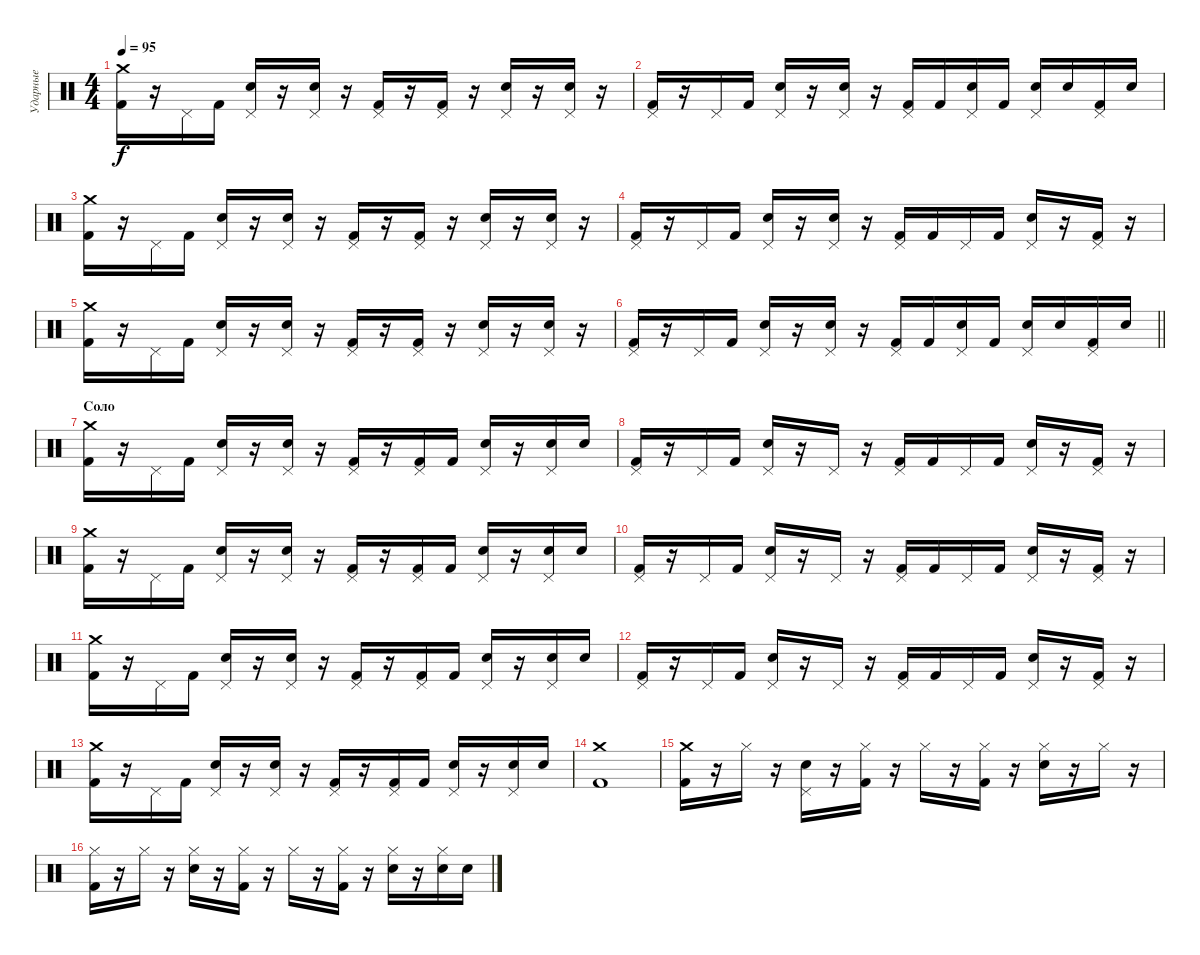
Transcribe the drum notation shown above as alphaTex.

\track ("Ударные" "Ударные") {instrument percussion}
\staff {score}
\articulation defaults
\ts (4 4)
\tempo 95
\clef neutral
\ks c
("Crash medium (hit)" "Kick (hit) 2").16{dy f} r.16 "Pedal Hi-Hat (hit)".16 "Kick (hit) 2".16 ("Pedal Hi-Hat (hit)" "Snare (hit) 2").16 r.16 ("Pedal Hi-Hat (hit)" "Snare (hit) 2").16 r.16 ("Pedal Hi-Hat (hit)" "Kick (hit) 2").16 r.16 ("Pedal Hi-Hat (hit)" "Kick (hit) 2").16 r.16 ("Pedal Hi-Hat (hit)" "Snare (hit) 2").16 r.16 ("Pedal Hi-Hat (hit)" "Snare (hit) 2").16 r.16 |
("Pedal Hi-Hat (hit)" "Kick (hit) 2").16 r.16 "Pedal Hi-Hat (hit)".16 "Kick (hit) 2".16 ("Pedal Hi-Hat (hit)" "Snare (hit) 2").16 r.16 ("Pedal Hi-Hat (hit)" "Snare (hit) 2").16 r.16 ("Pedal Hi-Hat (hit)" "Kick (hit) 2").16 "Kick (hit) 2".16 ("Pedal Hi-Hat (hit)" "Electric Snare (hit)").16 "Kick (hit) 2".16 ("Pedal Hi-Hat (hit)" "Snare (hit) 2").16 "Snare (hit) 2".16 ("Pedal Hi-Hat (hit)" "Kick (hit) 2").16 "Snare (hit) 2".16 |
("Crash medium (hit)" "Kick (hit) 2").16 r.16 "Pedal Hi-Hat (hit)".16 "Kick (hit) 2".16 ("Pedal Hi-Hat (hit)" "Snare (hit) 2").16 r.16 ("Pedal Hi-Hat (hit)" "Snare (hit) 2").16 r.16 ("Pedal Hi-Hat (hit)" "Kick (hit) 2").16 r.16 ("Pedal Hi-Hat (hit)" "Kick (hit) 2").16 r.16 ("Pedal Hi-Hat (hit)" "Snare (hit) 2").16 r.16 ("Pedal Hi-Hat (hit)" "Snare (hit) 2").16 r.16 |
("Pedal Hi-Hat (hit)" "Kick (hit) 2").16 r.16 "Pedal Hi-Hat (hit)".16 "Kick (hit) 2".16 ("Pedal Hi-Hat (hit)" "Snare (hit) 2").16 r.16 ("Pedal Hi-Hat (hit)" "Snare (hit) 2").16 r.16 ("Pedal Hi-Hat (hit)" "Kick (hit) 2").16 "Kick (hit) 2".16 "Pedal Hi-Hat (hit)".16 "Kick (hit) 2".16 ("Pedal Hi-Hat (hit)" "Snare (hit) 2").16 r.16 ("Pedal Hi-Hat (hit)" "Kick (hit) 2").16 r.16 |
("Crash medium (hit)" "Kick (hit) 2").16 r.16 "Pedal Hi-Hat (hit)".16 "Kick (hit) 2".16 ("Pedal Hi-Hat (hit)" "Snare (hit) 2").16 r.16 ("Pedal Hi-Hat (hit)" "Snare (hit) 2").16 r.16 ("Pedal Hi-Hat (hit)" "Kick (hit) 2").16 r.16 ("Pedal Hi-Hat (hit)" "Kick (hit) 2").16 r.16 ("Pedal Hi-Hat (hit)" "Snare (hit) 2").16 r.16 ("Pedal Hi-Hat (hit)" "Snare (hit) 2").16 r.16 |
\barLineRight lightlight
("Pedal Hi-Hat (hit)" "Kick (hit) 2").16 r.16 "Pedal Hi-Hat (hit)".16 "Kick (hit) 2".16 ("Pedal Hi-Hat (hit)" "Snare (hit) 2").16 r.16 ("Pedal Hi-Hat (hit)" "Snare (hit) 2").16 r.16 ("Pedal Hi-Hat (hit)" "Kick (hit) 2").16 "Kick (hit) 2".16 ("Pedal Hi-Hat (hit)" "Snare (hit) 2").16 "Kick (hit) 2".16 ("Pedal Hi-Hat (hit)" "Snare (hit) 2").16 "Snare (hit) 2".16 ("Pedal Hi-Hat (hit)" "Kick (hit) 2").16 "Snare (hit) 2".16 |
\section ("" "Соло")
("Crash medium (hit)" "Kick (hit) 2").16 r.16 "Pedal Hi-Hat (hit)".16 "Kick (hit) 2".16 ("Pedal Hi-Hat (hit)" "Electric Snare (hit)").16 r.16 ("Pedal Hi-Hat (hit)" "Electric Snare (hit)").16 r.16 ("Pedal Hi-Hat (hit)" "Kick (hit) 2").16 r.16 ("Pedal Hi-Hat (hit)" "Kick (hit) 2").16 "Kick (hit) 2".16 ("Pedal Hi-Hat (hit)" "Electric Snare (hit)").16 r.16 ("Pedal Hi-Hat (hit)" "Electric Snare (hit)").16 "Electric Snare (hit)".16 |
("Pedal Hi-Hat (hit)" "Kick (hit) 2").16 r.16 "Pedal Hi-Hat (hit)".16 "Kick (hit) 2".16 ("Pedal Hi-Hat (hit)" "Electric Snare (hit)").16 r.16 "Pedal Hi-Hat (hit)".16 r.16 ("Pedal Hi-Hat (hit)" "Kick (hit) 2").16 "Kick (hit) 2".16 "Pedal Hi-Hat (hit)".16 "Kick (hit) 2".16 ("Pedal Hi-Hat (hit)" "Electric Snare (hit)").16 r.16 ("Pedal Hi-Hat (hit)" "Kick (hit) 2").16 r.16 |
("Crash medium (hit)" "Kick (hit) 2").16 r.16 "Pedal Hi-Hat (hit)".16 "Kick (hit) 2".16 ("Pedal Hi-Hat (hit)" "Electric Snare (hit)").16 r.16 ("Pedal Hi-Hat (hit)" "Electric Snare (hit)").16 r.16 ("Pedal Hi-Hat (hit)" "Kick (hit) 2").16 r.16 ("Pedal Hi-Hat (hit)" "Kick (hit) 2").16 "Kick (hit) 2".16 ("Pedal Hi-Hat (hit)" "Electric Snare (hit)").16 r.16 ("Pedal Hi-Hat (hit)" "Electric Snare (hit)").16 "Electric Snare (hit)".16 |
("Pedal Hi-Hat (hit)" "Kick (hit) 2").16 r.16 "Pedal Hi-Hat (hit)".16 "Kick (hit) 2".16 ("Pedal Hi-Hat (hit)" "Electric Snare (hit)").16 r.16 "Pedal Hi-Hat (hit)".16 r.16 ("Pedal Hi-Hat (hit)" "Kick (hit) 2").16 "Kick (hit) 2".16 "Pedal Hi-Hat (hit)".16 "Kick (hit) 2".16 ("Pedal Hi-Hat (hit)" "Electric Snare (hit)").16 r.16 ("Pedal Hi-Hat (hit)" "Kick (hit) 2").16 r.16 |
("Crash medium (hit)" "Kick (hit) 2").16 r.16 "Pedal Hi-Hat (hit)".16 "Kick (hit) 2".16 ("Pedal Hi-Hat (hit)" "Electric Snare (hit)").16 r.16 ("Pedal Hi-Hat (hit)" "Electric Snare (hit)").16 r.16 ("Pedal Hi-Hat (hit)" "Kick (hit) 2").16 r.16 ("Pedal Hi-Hat (hit)" "Kick (hit) 2").16 "Kick (hit) 2".16 ("Pedal Hi-Hat (hit)" "Electric Snare (hit)").16 r.16 ("Pedal Hi-Hat (hit)" "Electric Snare (hit)").16 "Electric Snare (hit)".16 |
("Pedal Hi-Hat (hit)" "Kick (hit) 2").16 r.16 "Pedal Hi-Hat (hit)".16 "Kick (hit) 2".16 ("Pedal Hi-Hat (hit)" "Electric Snare (hit)").16 r.16 "Pedal Hi-Hat (hit)".16 r.16 ("Pedal Hi-Hat (hit)" "Kick (hit) 2").16 "Kick (hit) 2".16 "Pedal Hi-Hat (hit)".16 "Kick (hit) 2".16 ("Pedal Hi-Hat (hit)" "Electric Snare (hit)").16 r.16 ("Pedal Hi-Hat (hit)" "Kick (hit) 2").16 r.16 |
("Crash medium (hit)" "Kick (hit) 2").16 r.16 "Pedal Hi-Hat (hit)".16 "Kick (hit) 2".16 ("Pedal Hi-Hat (hit)" "Electric Snare (hit)").16 r.16 ("Pedal Hi-Hat (hit)" "Electric Snare (hit)").16 r.16 ("Pedal Hi-Hat (hit)" "Kick (hit) 2").16 r.16 ("Pedal Hi-Hat (hit)" "Kick (hit) 2").16 "Kick (hit) 2".16 ("Pedal Hi-Hat (hit)" "Electric Snare (hit)").16 r.16 ("Pedal Hi-Hat (hit)" "Electric Snare (hit)").16 "Electric Snare (hit)".16 |
("Crash medium (hit)" "Kick (hit) 2").1 |
("Crash medium (hit)" "Kick (hit) 2").16 r.16 "Hi-Hat (closed)".16 r.16 ("Pedal Hi-Hat (hit)" "Electric Snare (hit)").16 r.16 ("Hi-Hat (closed)" "Kick (hit) 2").16 r.16 "Hi-Hat (closed)".16 r.16 ("Hi-Hat (closed)" "Kick (hit) 2").16 r.16 ("Hi-Hat (closed)" "Electric Snare (hit)").16 r.16 "Hi-Hat (closed)".16 r.16 |
("Hi-Hat (closed)" "Kick (hit) 2").16 r.16 "Hi-Hat (closed)".16 r.16 ("Hi-Hat (closed)" "Electric Snare (hit)").16 r.16 ("Hi-Hat (closed)" "Kick (hit) 2").16 r.16 "Hi-Hat (closed)".16 r.16 ("Hi-Hat (closed)" "Kick (hit) 2").16 r.16 ("Hi-Hat (closed)" "Electric Snare (hit)").16 r.16 ("Hi-Hat (closed)" "Electric Snare (hit)").16 "Electric Snare (hit)".16
